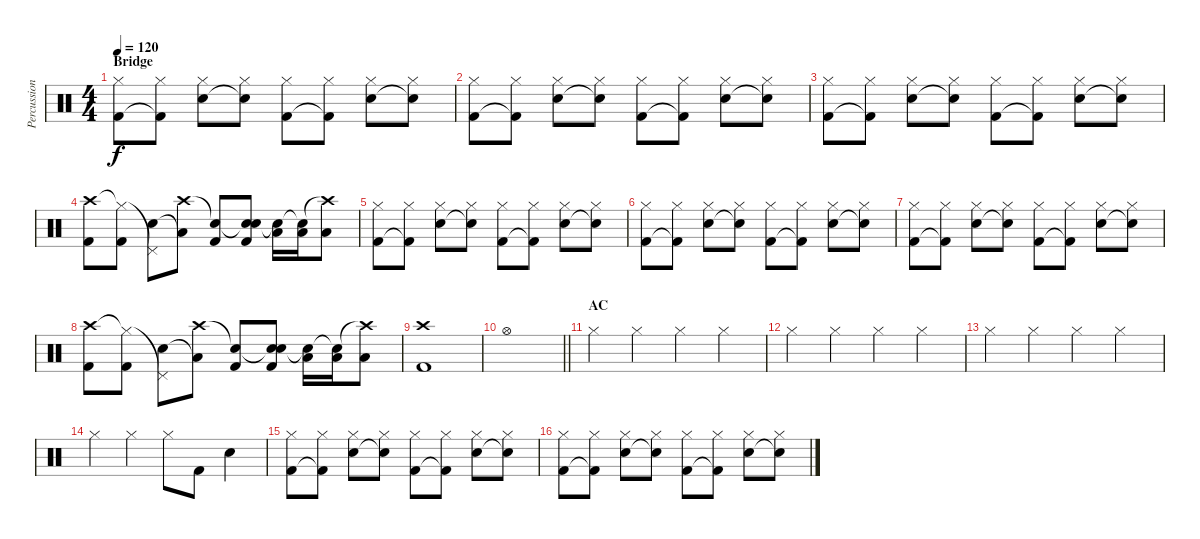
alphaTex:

\track ("Percussion" "Percussion") {instrument percussion}
\staff {score}
\articulation defaults
\ts (4 4)
\section ("" "Bridge")
\tempo 120
\clef neutral
\ks c
("Hi-Hat (closed)" "Kick (hit) 2").8{dy f} ("Hi-Hat (closed)" "Kick (hit) 2"{t}).8 ("Hi-Hat (closed)" "Electric Snare (hit)").8 ("Hi-Hat (closed)" "Electric Snare (hit)"{t}).8 ("Hi-Hat (closed)" "Kick (hit) 2").8 ("Hi-Hat (closed)" "Kick (hit) 2"{t}).8 ("Hi-Hat (closed)" "Electric Snare (hit)").8 ("Hi-Hat (closed)" "Electric Snare (hit)"{t}).8 |
("Hi-Hat (closed)" "Kick (hit) 2").8 ("Hi-Hat (closed)" "Kick (hit) 2"{t}).8 ("Hi-Hat (closed)" "Electric Snare (hit)").8 ("Hi-Hat (closed)" "Electric Snare (hit)"{t}).8 ("Hi-Hat (closed)" "Kick (hit) 2").8 ("Hi-Hat (closed)" "Kick (hit) 2"{t}).8 ("Hi-Hat (closed)" "Electric Snare (hit)").8 ("Hi-Hat (closed)" "Electric Snare (hit)"{t}).8 |
("Hi-Hat (closed)" "Kick (hit) 2").8 ("Hi-Hat (closed)" "Kick (hit) 2"{t}).8 ("Hi-Hat (closed)" "Electric Snare (hit)").8 ("Hi-Hat (closed)" "Electric Snare (hit)"{t}).8 ("Hi-Hat (closed)" "Kick (hit) 2").8 ("Hi-Hat (closed)" "Kick (hit) 2"{t}).8 ("Hi-Hat (closed)" "Electric Snare (hit)").8 ("Hi-Hat (closed)" "Electric Snare (hit)"{t}).8 |
("Crash high (hit)" "Kick (hit) 2").8 ("Hi-Hat (closed)"{t} "Kick (hit) 2").8 ("Pedal Hi-Hat (hit)"{t} "Electric Snare (hit)").8 ("Crash high (hit)" "Low Floor Tom (hit)"{t}).8 ("Snare (hit)"{t} "Kick (hit) 2").8 ("Snare (hit)"{t} "Electric Snare (hit)" "Kick (hit) 2").8 ("Snare (hit)"{t} "Low Floor Tom (hit)").16 ("Snare (hit)"{t} "Low Floor Tom (hit)").16 ("Crash high (hit)"{t} "Low Floor Tom (hit)").8 |
("Hi-Hat (closed)" "Kick (hit) 2").8 ("Hi-Hat (closed)" "Kick (hit) 2"{t}).8 ("Hi-Hat (closed)" "Electric Snare (hit)").8 ("Hi-Hat (closed)" "Electric Snare (hit)"{t}).8 ("Hi-Hat (closed)" "Kick (hit) 2").8 ("Hi-Hat (closed)" "Kick (hit) 2"{t}).8 ("Hi-Hat (closed)" "Electric Snare (hit)").8 ("Hi-Hat (closed)" "Electric Snare (hit)"{t}).8 |
("Hi-Hat (closed)" "Kick (hit) 2").8 ("Hi-Hat (closed)" "Kick (hit) 2"{t}).8 ("Hi-Hat (closed)" "Electric Snare (hit)").8 ("Hi-Hat (closed)" "Electric Snare (hit)"{t}).8 ("Hi-Hat (closed)" "Kick (hit) 2").8 ("Hi-Hat (closed)" "Kick (hit) 2"{t}).8 ("Hi-Hat (closed)" "Electric Snare (hit)").8 ("Hi-Hat (closed)" "Electric Snare (hit)"{t}).8 |
("Hi-Hat (closed)" "Kick (hit) 2").8 ("Hi-Hat (closed)" "Kick (hit) 2"{t}).8 ("Hi-Hat (closed)" "Electric Snare (hit)").8 ("Hi-Hat (closed)" "Electric Snare (hit)"{t}).8 ("Hi-Hat (closed)" "Kick (hit) 2").8 ("Hi-Hat (closed)" "Kick (hit) 2"{t}).8 ("Hi-Hat (closed)" "Electric Snare (hit)").8 ("Hi-Hat (closed)" "Electric Snare (hit)"{t}).8 |
("Crash high (hit)" "Kick (hit) 2").8 ("Hi-Hat (closed)"{t} "Kick (hit) 2").8 ("Pedal Hi-Hat (hit)"{t} "Electric Snare (hit)").8 ("Crash high (hit)" "Low Floor Tom (hit)"{t}).8 ("Snare (hit)"{t} "Kick (hit) 2").8 ("Snare (hit)"{t} "Electric Snare (hit)" "Kick (hit) 2").8 ("Snare (hit)"{t} "Low Floor Tom (hit)").16 ("Snare (hit)"{t} "Low Floor Tom (hit)").16 ("Crash high (hit)"{t} "Low Floor Tom (hit)").8 |
("Crash high (hit)" "Kick (hit) 2").1 |
\barLineRight lightlight "Hi-Hat (open)".1
|
\section ("" "AC")
"Hi-Hat (closed)".4 "Hi-Hat (closed)".4 "Hi-Hat (closed)".4 "Hi-Hat (closed)".4 |
"Hi-Hat (closed)".4 "Hi-Hat (closed)".4 "Hi-Hat (closed)".4 "Hi-Hat (closed)".4 |
"Hi-Hat (closed)".4 "Hi-Hat (closed)".4 "Hi-Hat (closed)".4 "Hi-Hat (closed)".4 |
"Hi-Hat (closed)".4 "Hi-Hat (closed)".4 "Hi-Hat (closed)".8 "Kick (hit) 2".8 "Electric Snare (hit)".4 |
("Hi-Hat (closed)" "Kick (hit) 2").8 ("Hi-Hat (closed)" "Kick (hit) 2"{t}).8 ("Hi-Hat (closed)" "Electric Snare (hit)").8 ("Hi-Hat (closed)" "Electric Snare (hit)"{t}).8 ("Hi-Hat (closed)" "Kick (hit) 2").8 ("Hi-Hat (closed)" "Kick (hit) 2"{t}).8 ("Hi-Hat (closed)" "Electric Snare (hit)").8 ("Hi-Hat (closed)" "Electric Snare (hit)"{t}).8 |
("Hi-Hat (closed)" "Kick (hit) 2").8 ("Hi-Hat (closed)" "Kick (hit) 2"{t}).8 ("Hi-Hat (closed)" "Electric Snare (hit)").8 ("Hi-Hat (closed)" "Electric Snare (hit)"{t}).8 ("Hi-Hat (closed)" "Kick (hit) 2").8 ("Hi-Hat (closed)" "Kick (hit) 2"{t}).8 ("Hi-Hat (closed)" "Electric Snare (hit)").8 ("Hi-Hat (closed)" "Electric Snare (hit)"{t}).8
